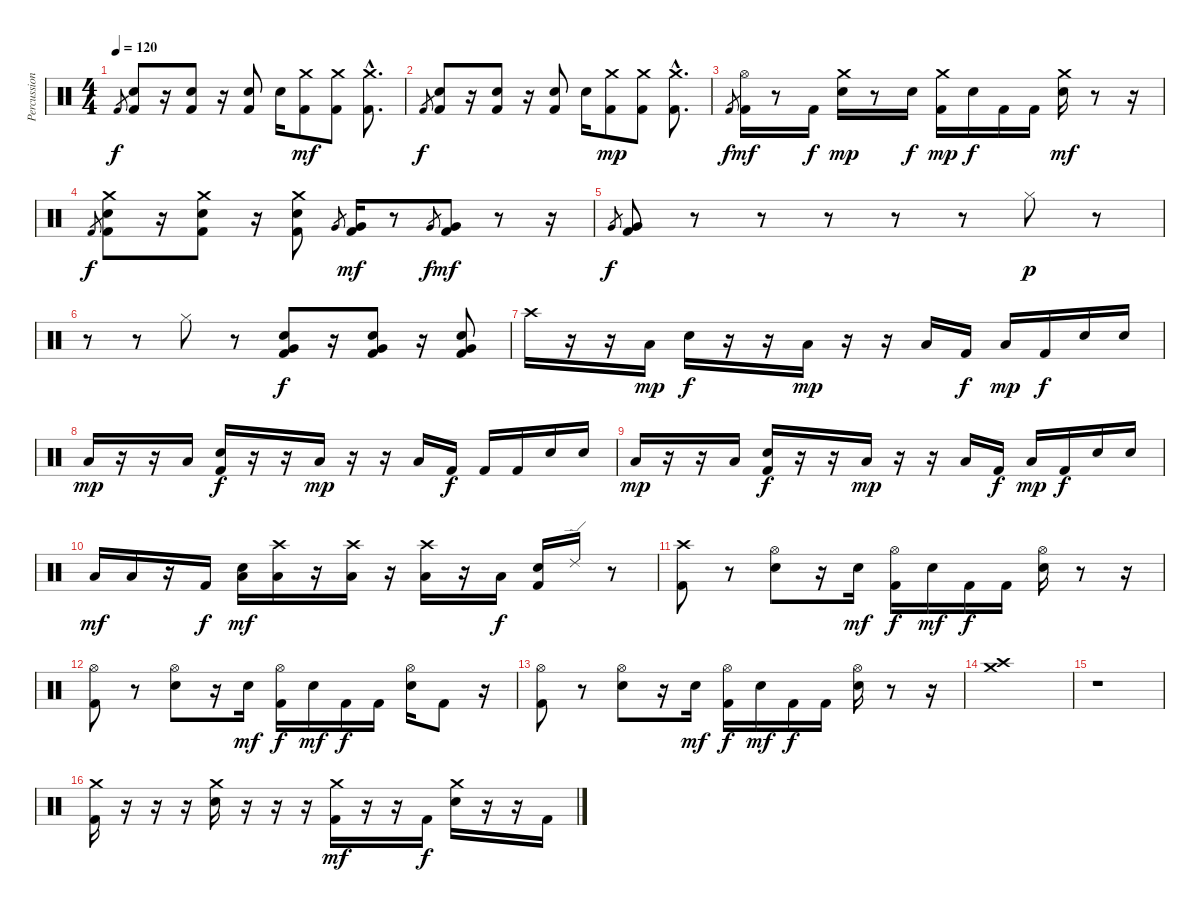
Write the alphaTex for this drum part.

\track ("Percussion" "Percussion") {instrument percussion}
\staff {score}
\articulation defaults
\ts (4 4)
\tempo 120
\clef neutral
\ks c "Kick (hit) 2".8{gr dy f}
("Kick (hit) 2" "Electric Snare (hit)").8 r.16 ("Kick (hit) 2" "Electric Snare (hit)").8 r.16 ("Kick (hit) 2" "Electric Snare (hit)").8 "Electric Snare (hit)".16 ("Kick (hit) 2" "Crash medium (hit)").8{dy mf} ("Kick (hit) 2" "Crash medium (hit)").8 ("Kick (hit) 2"{hac} "Crash medium (hit)"{hac}).8{d} |
"Kick (hit) 2".8{gr dy f} ("Kick (hit) 2" "Electric Snare (hit)").8 r.16 ("Kick (hit) 2" "Electric Snare (hit)").8 r.16 ("Kick (hit) 2" "Electric Snare (hit)").8 "Electric Snare (hit)".16 ("Kick (hit) 2" "Crash medium (hit)").8{dy mp} ("Kick (hit) 2" "Crash medium (hit)").8 ("Kick (hit) 2"{hac} "Crash medium (hit)"{hac}).8{d} |
"Kick (hit) 2".8{gr dy f} ("Kick (hit) 2" "Hi-Hat (open)").16{dy mf} r.8 "Kick (hit) 2".16{dy f} ("Crash medium (hit)" "Electric Snare (hit)").16{dy mp} r.8 "Electric Snare (hit)".16{dy f} ("Kick (hit) 2" "Crash medium (hit)").16{dy mp} "Electric Snare (hit)".16{dy f} "Kick (hit) 2".16 "Kick (hit) 2".16 ("Crash medium (hit)" "Electric Snare (hit)").16{dy mf} r.8 r.16 |
"Kick (hit) 2".8{gr dy f} ("Kick (hit) 2" "Crash medium (hit)" "Electric Snare (hit)").8 r.16 ("Kick (hit) 2" "Crash medium (hit)" "Electric Snare (hit)").8 r.16 ("Kick (hit) 2" "Crash medium (hit)" "Electric Snare (hit)").8 "Very Low Tom (hit)".8{gr} ("Very Low Tom (hit)" "Kick (hit) 2").16{dy mf} r.8 "Very Low Tom (hit)".8{gr dy f} ("Very Low Tom (hit)" "Kick (hit) 2").8{dy mf} r.8 r.16 |
"Very Low Tom (hit)".8{gr dy f} ("Very Low Tom (hit)" "Kick (hit) 2").8 r.8 r.8 r.8 r.8 r.8 "Hi-Hat (closed)".8{dy p} r.8 |
r.8 r.8 "Hi-Hat (closed)".8 r.8 ("Very Low Tom (hit)" "Kick (hit) 2" "Electric Snare (hit)").8{dy f} r.16 ("Very Low Tom (hit)" "Kick (hit) 2" "Electric Snare (hit)").8 r.16 ("Very Low Tom (hit)" "Kick (hit) 2" "Electric Snare (hit)").8 |
"Crash high (hit)".16 r.16 r.16 "Low Floor Tom (hit)".16{dy mp} "Electric Snare (hit)".16{dy f} r.16 r.16 "Low Floor Tom (hit)".16{dy mp} r.16 r.16 "Low Floor Tom (hit)".16 "Kick (hit) 2".16{dy f} "Low Floor Tom (hit)".16{dy mp} "Kick (hit) 2".16{dy f} "Electric Snare (hit)".16 "Electric Snare (hit)".16 |
"Low Floor Tom (hit)".16{dy mp} r.16 r.16 "Low Floor Tom (hit)".16 ("Kick (hit) 2" "Electric Snare (hit)").16{dy f} r.16 r.16 "Low Floor Tom (hit)".16{dy mp} r.16 r.16 "Low Floor Tom (hit)".16 "Kick (hit) 2".16{dy f} "Kick (hit) 2".16 "Kick (hit) 2".16 "Electric Snare (hit)".16 "Electric Snare (hit)".16 |
"Low Floor Tom (hit)".16{dy mp} r.16 r.16 "Low Floor Tom (hit)".16 ("Kick (hit) 2" "Electric Snare (hit)").16{dy f} r.16 r.16 "Low Floor Tom (hit)".16{dy mp} r.16 r.16 "Low Floor Tom (hit)".16 "Kick (hit) 2".16{dy f} "Low Floor Tom (hit)".16{dy mp} "Kick (hit) 2".16{dy f} "Electric Snare (hit)".16 "Electric Snare (hit)".16 |
"Low Floor Tom (hit)".16{dy mf} "Low Floor Tom (hit)".16 r.16 "Kick (hit) 2".16{dy f} ("Low Floor Tom (hit)" "Electric Snare (hit)").16{dy mf} ("Low Floor Tom (hit)" "Crash high (hit)").16 r.16 ("Low Floor Tom (hit)" "Crash high (hit)").16 r.16 ("Low Floor Tom (hit)" "Crash high (hit)").16 r.16 "Low Floor Tom (hit)".16{dy f} ("Electric Snare (hit)" "Kick (hit) 2").16 "Ride (edge) 2".16 r.8 |
("Crash high (hit)" "Kick (hit) 2").8 r.8 ("Hi-Hat (open)" "Electric Snare (hit)").8 r.16 "Electric Snare (hit)".16{dy mf} ("Hi-Hat (open)" "Kick (hit) 2").16{dy f} "Electric Snare (hit)".16{dy mf} "Kick (hit) 2".16{dy f} "Kick (hit) 2".16 ("Hi-Hat (open)" "Electric Snare (hit)").16 r.8 r.16 |
("Hi-Hat (open)" "Kick (hit) 2").8 r.8 ("Hi-Hat (open)" "Electric Snare (hit)").8 r.16 "Electric Snare (hit)".16{dy mf} ("Hi-Hat (open)" "Kick (hit) 2").16{dy f} "Electric Snare (hit)".16{dy mf} "Kick (hit) 2".16{dy f} "Kick (hit) 2".16 ("Hi-Hat (open)" "Electric Snare (hit)").16 "Kick (hit) 2".8 r.16 |
("Hi-Hat (open)" "Kick (hit) 2").8 r.8 ("Hi-Hat (open)" "Electric Snare (hit)").8 r.16 "Electric Snare (hit)".16{dy mf} ("Hi-Hat (open)" "Kick (hit) 2").16{dy f} "Electric Snare (hit)".16{dy mf} "Kick (hit) 2".16{dy f} "Kick (hit) 2".16 ("Hi-Hat (open)" "Electric Snare (hit)").16 r.8 r.16 |
("Crash medium (hit)" "Crash high (hit)").1 |
r.1 |
("Crash medium (hit)" "Kick (hit) 2").16 r.16 r.16 r.16 ("Crash medium (hit)" "Electric Snare (hit)").16 r.16 r.16 r.16 ("Crash medium (hit)" "Kick (hit) 2").16{dy mf} r.16 r.16 "Kick (hit) 2".16{dy f} ("Crash medium (hit)" "Electric Snare (hit)").16 r.16 r.16 "Kick (hit) 2".16
